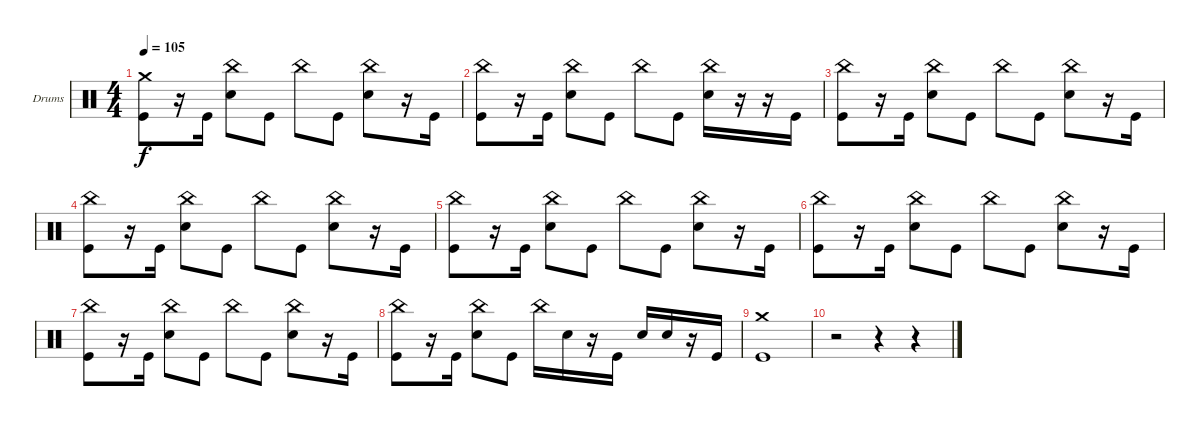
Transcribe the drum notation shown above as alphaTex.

\bracketExtendMode groupsimilarinstruments
\firstSystemTrackNameOrientation horizontal
\otherSystemsTrackNameOrientation horizontal
\track ("Drumkit" "Drums") {instrument percussion}
\staff {score}
\articulation defaults
\ts (4 4)
\tempo 105
\clef neutral
\ks c
("Kick (hit)" "Crash medium (hit)").8{dy f} r.16 "Kick (hit)".16 ("Snare (hit) 2" "China (hit)").8 "Kick (hit)".8 "China (hit)".8 "Kick (hit)".8 ("Snare (hit) 2" "China (hit)").8 r.16 "Kick (hit)".16 |
("Kick (hit)" "China (hit)").8 r.16 "Kick (hit)".16 ("Snare (hit) 2" "China (hit)").8 "Kick (hit)".8 "China (hit)".8 "Kick (hit)".8 ("Snare (hit) 2" "China (hit)").16 r.16 r.16 "Kick (hit)".16 |
("Kick (hit)" "China (hit)").8 r.16 "Kick (hit)".16 ("Snare (hit) 2" "China (hit)").8 "Kick (hit)".8 "China (hit)".8 "Kick (hit)".8 ("Snare (hit) 2" "China (hit)").8 r.16 "Kick (hit)".16 |
("Kick (hit)" "China (hit)").8 r.16 "Kick (hit)".16 ("Snare (hit) 2" "China (hit)").8 "Kick (hit)".8 "China (hit)".8 "Kick (hit)".8 ("Snare (hit) 2" "China (hit)").8 r.16 "Kick (hit)".16 |
("Kick (hit)" "China (hit)").8 r.16 "Kick (hit)".16 ("Snare (hit) 2" "China (hit)").8 "Kick (hit)".8 "China (hit)".8 "Kick (hit)".8 ("Snare (hit) 2" "China (hit)").8 r.16 "Kick (hit)".16 |
("Kick (hit)" "China (hit)").8 r.16 "Kick (hit)".16 ("Snare (hit) 2" "China (hit)").8 "Kick (hit)".8 "China (hit)".8 "Kick (hit)".8 ("Snare (hit) 2" "China (hit)").8 r.16 "Kick (hit)".16 |
("Kick (hit)" "China (hit)").8 r.16 "Kick (hit)".16 ("Snare (hit) 2" "China (hit)").8 "Kick (hit)".8 "China (hit)".8 "Kick (hit)".8 ("Snare (hit) 2" "China (hit)").8 r.16 "Kick (hit)".16 |
("Kick (hit)" "China (hit)").8 r.16 "Kick (hit)".16 ("Snare (hit) 2" "China (hit)").8 "Kick (hit)".8 "China (hit)".16 "Snare (hit) 2".16 r.16 "Kick (hit)".16 "Snare (hit) 2".16 "Snare (hit) 2".16 r.16 "Kick (hit)".16 |
("Kick (hit)" "Crash medium (hit)").1 |
r.2 r.4 r.4
